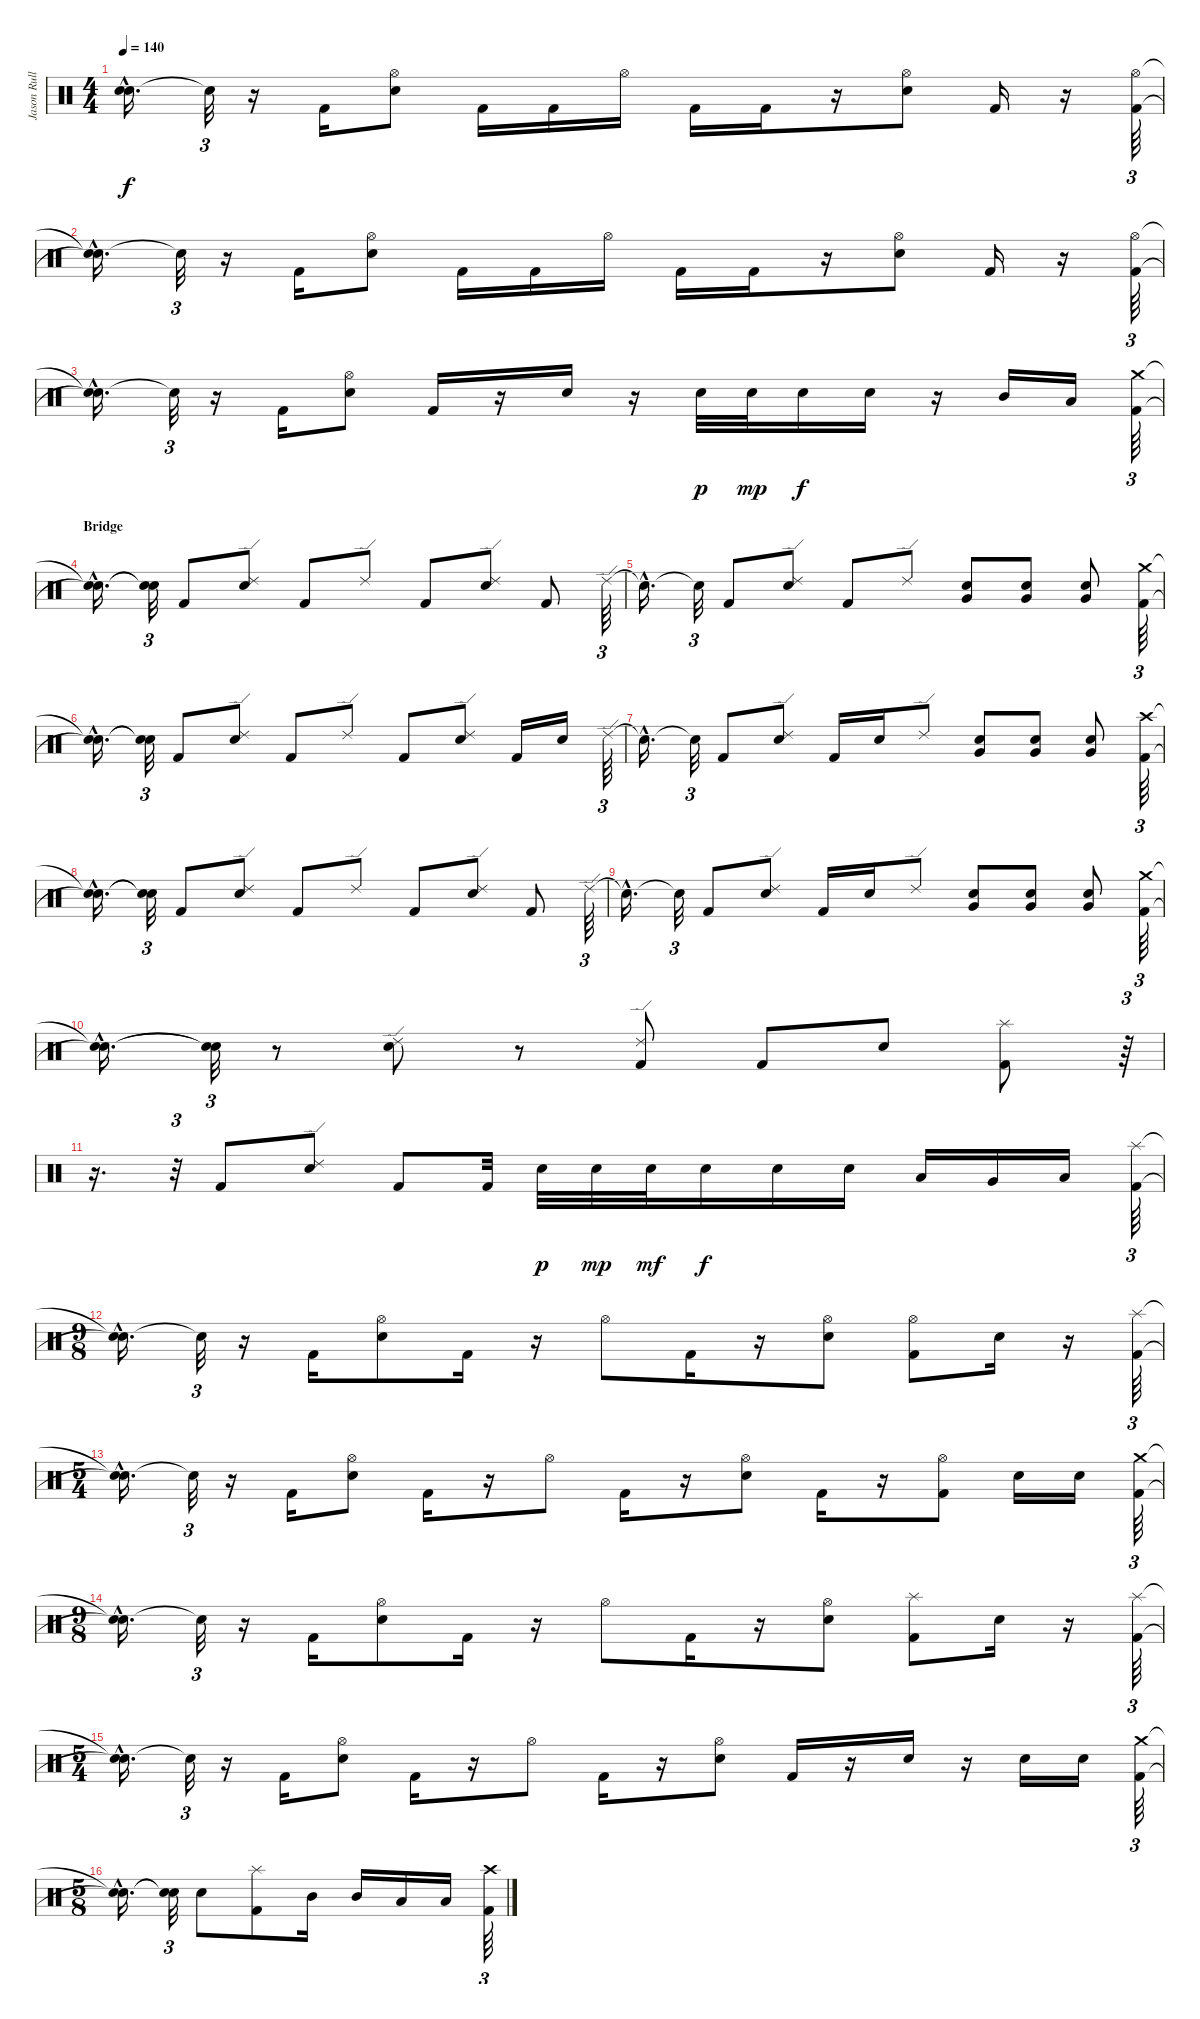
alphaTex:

\track ("Jason Rullo" "Jason Rull") {instrument percussion}
\staff {score}
\articulation defaults
\ts (4 4)
\tempo 140
\clef neutral
\ks c
("Snare (hit)"{hac t} "Snare (hit)"{hac t}).16{d dy f} "Snare (hit)"{t}.32{tu (3 2)} r.16 "Kick (hit) 2".16 ("Hi-Hat (open)" "Electric Snare (hit)").8 "Kick (hit) 2".16 "Kick (hit) 2".16 "Hi-Hat (open)".16 "Kick (hit) 2".16 "Kick (hit) 2".16 r.16 ("Hi-Hat (open)" "Electric Snare (hit)").8 "Kick (hit) 2".16 r.16 ("Hi-Hat (open)" "Kick (hit) 2").64{tu (3 2)} |
("Snare (hit)"{hac t} "Snare (hit)"{hac t}).16{d} "Snare (hit)"{t}.32{tu (3 2)} r.16 "Kick (hit) 2".16 ("Hi-Hat (open)" "Electric Snare (hit)").8 "Kick (hit) 2".16 "Kick (hit) 2".16 "Hi-Hat (open)".16 "Kick (hit) 2".16 "Kick (hit) 2".16 r.16 ("Hi-Hat (open)" "Electric Snare (hit)").8 "Kick (hit) 2".16 r.16 ("Hi-Hat (open)" "Kick (hit) 2").64{tu (3 2)} |
("Snare (hit)"{hac t} "Snare (hit)"{hac t}).16{d} "Snare (hit)"{t}.32{tu (3 2)} r.16 "Kick (hit) 2".16 ("Hi-Hat (open)" "Electric Snare (hit)").8 "Kick (hit) 2".16 r.16 "Electric Snare (hit)".16 r.16 "Electric Snare (hit)".32{dy p} "Electric Snare (hit)".32{dy mp} "Electric Snare (hit)".16{dy f} "Electric Snare (hit)".16 r.16 "Mid Tom (hit)".16 "Low Tom (hit)".16 ("Kick (hit) 2" "Crash medium (hit)").64{tu (3 2)} |
\section ("" "Bridge")
("Snare (hit)"{hac t} "Snare (hit)"{hac t}).16{d} ("Snare (hit)"{t} "Snare (hit)"{t}).32{tu (3 2)} "Kick (hit) 2".8 ("Electric Snare (hit)" "Ride (edge) 2").8 "Kick (hit) 2".8 "Ride (edge) 2".8 "Kick (hit) 2".8 ("Electric Snare (hit)" "Ride (edge) 2").8 "Kick (hit) 2".8 "Ride (edge) 2".64{tu (3 2)} |
"Snare (hit)"{hac t}.16{d} "Snare (hit)"{t}.32{tu (3 2)} "Kick (hit) 2".8 ("Electric Snare (hit)" "Ride (edge) 2").8 "Kick (hit) 2".8 "Ride (edge) 2".8 ("Very Low Tom (hit)" "Electric Snare (hit)").8 ("Very Low Tom (hit)" "Electric Snare (hit)").8 ("Very Low Tom (hit)" "Electric Snare (hit)").8 ("Kick (hit) 2" "Crash medium (hit)").64{tu (3 2)} |
("Snare (hit)"{hac t} "Snare (hit)"{hac t}).16{d} ("Snare (hit)"{t} "Snare (hit)"{t}).32{tu (3 2)} "Kick (hit) 2".8 ("Electric Snare (hit)" "Ride (edge) 2").8 "Kick (hit) 2".8 "Ride (edge) 2".8 "Kick (hit) 2".8 ("Electric Snare (hit)" "Ride (edge) 2").8 "Kick (hit) 2".16 "Electric Snare (hit)".16 "Ride (edge) 2".64{tu (3 2)} |
"Snare (hit)"{hac t}.16{d} "Snare (hit)"{t}.32{tu (3 2)} "Kick (hit) 2".8 ("Electric Snare (hit)" "Ride (edge) 2").8 "Kick (hit) 2".16 "Electric Snare (hit)".16 "Ride (edge) 2".8 ("Very Low Tom (hit)" "Electric Snare (hit)").8 ("Very Low Tom (hit)" "Electric Snare (hit)").8 ("Very Low Tom (hit)" "Electric Snare (hit)").8 ("Crash high (hit)" "Kick (hit) 2").64{tu (3 2)} |
("Snare (hit)"{hac t} "Snare (hit)"{hac t}).16{d} ("Snare (hit)"{t} "Snare (hit)"{t}).32{tu (3 2)} "Kick (hit) 2".8 ("Electric Snare (hit)" "Ride (edge) 2").8 "Kick (hit) 2".8 "Ride (edge) 2".8 "Kick (hit) 2".8 ("Electric Snare (hit)" "Ride (edge) 2").8 "Kick (hit) 2".8 "Ride (edge) 2".64{tu (3 2)} |
"Snare (hit)"{hac t}.16{d} "Snare (hit)"{t}.32{tu (3 2)} "Kick (hit) 2".8 ("Electric Snare (hit)" "Ride (edge) 2").8 "Kick (hit) 2".16 "Electric Snare (hit)".16 "Ride (edge) 2".8 ("Very Low Tom (hit)" "Electric Snare (hit)").8 ("Very Low Tom (hit)" "Electric Snare (hit)").8 ("Very Low Tom (hit)" "Electric Snare (hit)").8 ("Kick (hit) 2" "Crash medium (hit)").64{tu (3 2)} |
("Snare (hit)"{hac t} "Snare (hit)"{hac t}).16{d} ("Snare (hit)"{t} "Snare (hit)"{t}).32{tu (3 2)} r.8 ("Electric Snare (hit)" "Ride (edge) 2").8 r.8 ("Kick (hit) 2" "Ride (edge) 2").8 "Kick (hit) 2".8 "Electric Snare (hit)".8 ("Splash (hit)" "Kick (hit) 2").8 r.64{tu (3 2)} |
r.16{d} r.32{tu (3 2)} "Kick (hit) 2".8 ("Ride (edge) 2" "Electric Snare (hit)").8 "Kick (hit) 2".8 "Kick (hit) 2".32 "Electric Snare (hit)".32{dy p} "Electric Snare (hit)".32{dy mp} "Electric Snare (hit)".32{dy mf} "Electric Snare (hit)".16{dy f} "Electric Snare (hit)".16 "Electric Snare (hit)".16 "Low Tom (hit)".16 "Very Low Tom (hit)".16 "Low Floor Tom (hit)".16 ("Splash (hit)" "Kick (hit) 2").64{tu (3 2)} |
\ts (9 8)
("Snare (hit)"{hac t} "Snare (hit)"{hac t}).16{d} "Snare (hit)"{t}.32{tu (3 2)} r.16 "Kick (hit) 2".16 ("Hi-Hat (open)" "Electric Snare (hit)").8 "Kick (hit) 2".16 r.16 "Hi-Hat (open)".8 "Kick (hit) 2".16 r.16 ("Hi-Hat (open)" "Electric Snare (hit)").8 ("Hi-Hat (open)" "Kick (hit) 2").8 "Electric Snare (hit)".16 r.16 ("Splash (hit)" "Kick (hit) 2").64{tu (3 2)} |
\ts (5 4)
("Snare (hit)"{hac t} "Snare (hit)"{hac t}).16{d} "Snare (hit)"{t}.32{tu (3 2)} r.16 "Kick (hit) 2".16 ("Hi-Hat (open)" "Electric Snare (hit)").8 "Kick (hit) 2".16 r.16 "Hi-Hat (open)".8 "Kick (hit) 2".16 r.16 ("Hi-Hat (open)" "Electric Snare (hit)").8 "Kick (hit) 2".16 r.16 ("Hi-Hat (open)" "Kick (hit) 2").8 "Electric Snare (hit)".16 "Electric Snare (hit)".16 ("Crash medium (hit)" "Kick (hit) 2").64{tu (3 2)} |
\ts (9 8)
("Snare (hit)"{hac t} "Snare (hit)"{hac t}).16{d} "Snare (hit)"{t}.32{tu (3 2)} r.16 "Kick (hit) 2".16 ("Hi-Hat (open)" "Electric Snare (hit)").8 "Kick (hit) 2".16 r.16 "Hi-Hat (open)".8 "Kick (hit) 2".16 r.16 ("Hi-Hat (open)" "Electric Snare (hit)").8 ("Splash (hit)" "Kick (hit) 2").8 "Electric Snare (hit)".16 r.16 ("Splash (hit)" "Kick (hit) 2").64{tu (3 2)} |
\ts (5 4)
("Snare (hit)"{hac t} "Snare (hit)"{hac t}).16{d} "Snare (hit)"{t}.32{tu (3 2)} r.16 "Kick (hit) 2".16 ("Hi-Hat (open)" "Electric Snare (hit)").8 "Kick (hit) 2".16 r.16 "Hi-Hat (open)".8 "Kick (hit) 2".16 r.16 ("Hi-Hat (open)" "Electric Snare (hit)").8 "Kick (hit) 2".16 r.16 "Electric Snare (hit)".16 r.16 "Electric Snare (hit)".16 "Electric Snare (hit)".16 ("Crash medium (hit)" "Kick (hit) 2").64{tu (3 2)} |
\ts (5 8)
("Snare (hit)"{hac t} "Snare (hit)"{hac t}).16{d} ("Snare (hit)"{t} "Snare (hit)"{t}).32{tu (3 2)} "Electric Snare (hit)".8 ("Splash (hit)" "Kick (hit) 2").8 "Mid Tom (hit)".16 "Mid Tom (hit)".16 "Low Tom (hit)".16 "Low Tom (hit)".16 ("Crash high (hit)" "Kick (hit) 2").64{tu (3 2)}
